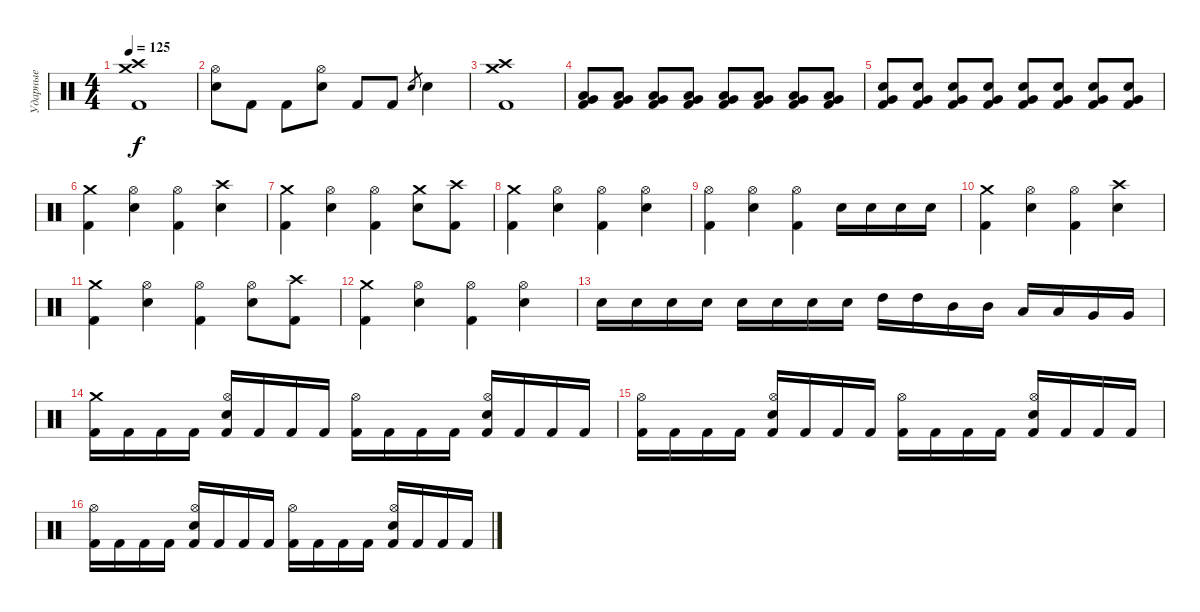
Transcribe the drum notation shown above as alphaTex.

\track ("Ударные" "Ударные") {instrument percussion}
\staff {score}
\articulation defaults
\ts (4 4)
\tempo 125
\clef neutral
\ks c
("Crash medium (hit)" "Crash high (hit)" "Kick (hit) 2").1{dy f} |
("Hi-Hat (open)" "Electric Snare (hit)").8 "Kick (hit) 2".8 "Kick (hit) 2".8 ("Hi-Hat (open)" "Electric Snare (hit)").8 "Kick (hit) 2".8 "Kick (hit) 2".8 "Electric Snare (hit)".8{gr} "Electric Snare (hit)".4 |
("Crash medium (hit)" "Crash high (hit)" "Kick (hit) 2").1 |
("Very Low Tom (hit)" "Low Floor Tom (hit)" "Kick (hit) 2").8 ("Very Low Tom (hit)" "Low Floor Tom (hit)" "Kick (hit) 2").8 ("Very Low Tom (hit)" "Low Floor Tom (hit)" "Kick (hit) 2").8 ("Very Low Tom (hit)" "Low Floor Tom (hit)" "Kick (hit) 2").8 ("Very Low Tom (hit)" "Low Floor Tom (hit)" "Kick (hit) 2").8 ("Very Low Tom (hit)" "Low Floor Tom (hit)" "Kick (hit) 2").8 ("Very Low Tom (hit)" "Low Floor Tom (hit)" "Kick (hit) 2").8 ("Very Low Tom (hit)" "Low Floor Tom (hit)" "Kick (hit) 2").8 |
("Electric Snare (hit)" "Very Low Tom (hit)" "Kick (hit) 2").8 ("Electric Snare (hit)" "Very Low Tom (hit)" "Kick (hit) 2").8 ("Electric Snare (hit)" "Very Low Tom (hit)" "Kick (hit) 2").8 ("Electric Snare (hit)" "Very Low Tom (hit)" "Kick (hit) 2").8 ("Electric Snare (hit)" "Very Low Tom (hit)" "Kick (hit) 2").8 ("Electric Snare (hit)" "Very Low Tom (hit)" "Kick (hit) 2").8 ("Electric Snare (hit)" "Very Low Tom (hit)" "Kick (hit) 2").8 ("Electric Snare (hit)" "Very Low Tom (hit)" "Kick (hit) 2").8 |
("Crash medium (hit)" "Kick (hit) 2").4 ("Hi-Hat (open)" "Electric Snare (hit)").4 ("Hi-Hat (open)" "Kick (hit) 2").4 ("Crash high (hit)" "Electric Snare (hit)").4 |
("Crash medium (hit)" "Kick (hit) 2").4 ("Hi-Hat (open)" "Electric Snare (hit)").4 ("Hi-Hat (open)" "Kick (hit) 2").4 ("Crash medium (hit)" "Electric Snare (hit)").8 ("Crash high (hit)" "Kick (hit) 2").8 |
("Crash medium (hit)" "Kick (hit) 2").4 ("Hi-Hat (open)" "Electric Snare (hit)").4 ("Hi-Hat (open)" "Kick (hit) 2").4 ("Hi-Hat (open)" "Electric Snare (hit)").4 |
("Hi-Hat (open)" "Kick (hit) 2").4 ("Hi-Hat (open)" "Electric Snare (hit)").4 ("Hi-Hat (open)" "Kick (hit) 2").4 "Electric Snare (hit)".16 "Electric Snare (hit)".16 "Electric Snare (hit)".16 "Electric Snare (hit)".16 |
("Crash medium (hit)" "Kick (hit) 2").4 ("Hi-Hat (open)" "Electric Snare (hit)").4 ("Hi-Hat (open)" "Kick (hit) 2").4 ("Crash high (hit)" "Electric Snare (hit)").4 |
("Crash medium (hit)" "Kick (hit) 2").4 ("Hi-Hat (open)" "Electric Snare (hit)").4 ("Hi-Hat (open)" "Kick (hit) 2").4 ("Hi-Hat (open)" "Electric Snare (hit)").8 ("Crash high (hit)" "Kick (hit) 2").8 |
("Crash medium (hit)" "Kick (hit) 2").4 ("Hi-Hat (open)" "Electric Snare (hit)").4 ("Hi-Hat (open)" "Kick (hit) 2").4 ("Hi-Hat (open)" "Electric Snare (hit)").4 |
"Electric Snare (hit)".16 "Electric Snare (hit)".16 "Electric Snare (hit)".16 "Electric Snare (hit)".16 "Electric Snare (hit)".16 "Electric Snare (hit)".16 "Electric Snare (hit)".16 "Electric Snare (hit)".16 "High Tom (hit)".16 "High Tom (hit)".16 "Mid Tom (hit)".16 "Mid Tom (hit)".16 "Low Tom (hit)".16 "Low Tom (hit)".16 "Very Low Tom (hit)".16 "Very Low Tom (hit)".16 |
("Crash medium (hit)" "Kick (hit) 2").16 "Kick (hit) 2".16 "Kick (hit) 2".16 "Kick (hit) 2".16 ("Hi-Hat (open)" "Electric Snare (hit)" "Kick (hit) 2").16 "Kick (hit) 2".16 "Kick (hit) 2".16 "Kick (hit) 2".16 ("Hi-Hat (open)" "Kick (hit) 2").16 "Kick (hit) 2".16 "Kick (hit) 2".16 "Kick (hit) 2".16 ("Hi-Hat (open)" "Electric Snare (hit)" "Kick (hit) 2").16 "Kick (hit) 2".16 "Kick (hit) 2".16 "Kick (hit) 2".16 |
("Hi-Hat (open)" "Kick (hit) 2").16 "Kick (hit) 2".16 "Kick (hit) 2".16 "Kick (hit) 2".16 ("Hi-Hat (open)" "Electric Snare (hit)" "Kick (hit) 2").16 "Kick (hit) 2".16 "Kick (hit) 2".16 "Kick (hit) 2".16 ("Hi-Hat (open)" "Kick (hit) 2").16 "Kick (hit) 2".16 "Kick (hit) 2".16 "Kick (hit) 2".16 ("Hi-Hat (open)" "Electric Snare (hit)" "Kick (hit) 2").16 "Kick (hit) 2".16 "Kick (hit) 2".16 "Kick (hit) 2".16 |
("Hi-Hat (open)" "Kick (hit) 2").16 "Kick (hit) 2".16 "Kick (hit) 2".16 "Kick (hit) 2".16 ("Hi-Hat (open)" "Electric Snare (hit)" "Kick (hit) 2").16 "Kick (hit) 2".16 "Kick (hit) 2".16 "Kick (hit) 2".16 ("Hi-Hat (open)" "Kick (hit) 2").16 "Kick (hit) 2".16 "Kick (hit) 2".16 "Kick (hit) 2".16 ("Hi-Hat (open)" "Electric Snare (hit)" "Kick (hit) 2").16 "Kick (hit) 2".16 "Kick (hit) 2".16 "Kick (hit) 2".16
